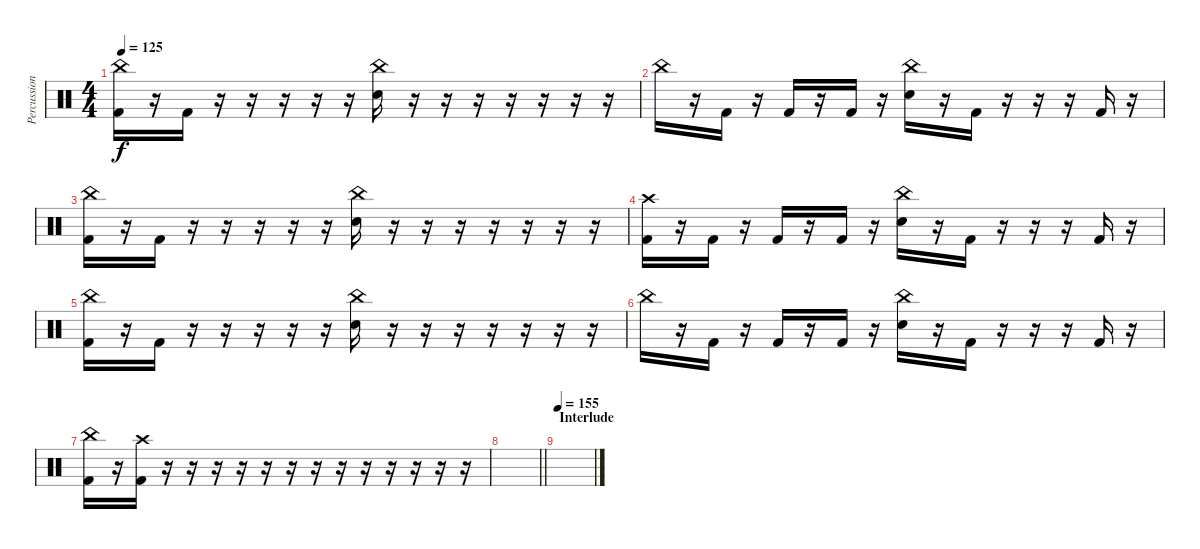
\track ("Percussion" "Percussion") {instrument percussion}
\staff {score}
\articulation defaults
\ts (4 4)
\tempo 125
\clef neutral
\ks c
("China (hit)" "Kick (hit) 2").16{dy f} r.16 "Kick (hit) 2".16 r.16 r.16 r.16 r.16 r.16 ("China (hit)" "Electric Snare (hit)").16 r.16 r.16 r.16 r.16 r.16 r.16 r.16 |
"China (hit)".16 r.16 "Kick (hit) 2".16 r.16 "Kick (hit) 2".16 r.16 "Kick (hit) 2".16 r.16 ("China (hit)" "Electric Snare (hit)").16 r.16 "Kick (hit) 2".16 r.16 r.16 r.16 "Kick (hit) 2".16 r.16 |
("China (hit)" "Kick (hit) 2").16 r.16 "Kick (hit) 2".16 r.16 r.16 r.16 r.16 r.16 ("China (hit)" "Electric Snare (hit)").16 r.16 r.16 r.16 r.16 r.16 r.16 r.16 |
("Crash high (hit)" "Kick (hit) 2").16 r.16 "Kick (hit) 2".16 r.16 "Kick (hit) 2".16 r.16 "Kick (hit) 2".16 r.16 ("China (hit)" "Electric Snare (hit)").16 r.16 "Kick (hit) 2".16 r.16 r.16 r.16 "Kick (hit) 2".16 r.16 |
("China (hit)" "Kick (hit) 2").16 r.16 "Kick (hit) 2".16 r.16 r.16 r.16 r.16 r.16 ("China (hit)" "Electric Snare (hit)").16 r.16 r.16 r.16 r.16 r.16 r.16 r.16 |
"China (hit)".16 r.16 "Kick (hit) 2".16 r.16 "Kick (hit) 2".16 r.16 "Kick (hit) 2".16 r.16 ("China (hit)" "Electric Snare (hit)").16 r.16 "Kick (hit) 2".16 r.16 r.16 r.16 "Kick (hit) 2".16 r.16 |
("China (hit)" "Kick (hit) 2").16 r.16 ("Crash high (hit)" "Kick (hit) 2").16 r.16 r.16 r.16 r.16 r.16 r.16 r.16 r.16 r.16 r.16 r.16 r.16 r.16 |
\barLineRight lightlight
|
\section ("" "Interlude")
\tempo 155
